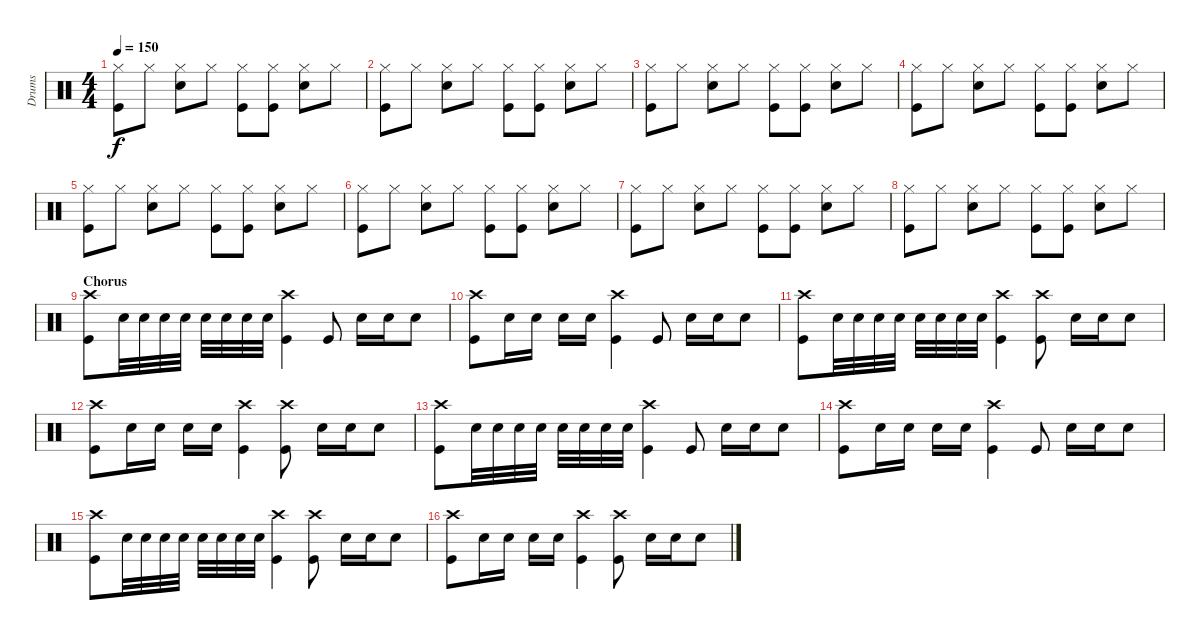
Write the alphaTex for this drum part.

\track ("Drums" "Drums") {instrument percussion}
\staff {score}
\articulation defaults
\ts (4 4)
\section ("" "")
\tempo 150
\clef neutral
\ks c
("Hi-Hat (closed)" "Kick (hit)").8{dy f} "Hi-Hat (closed)".8 ("Hi-Hat (closed)" "Snare (hit) 2").8 "Hi-Hat (closed)".8 ("Hi-Hat (closed)" "Kick (hit)").8 ("Hi-Hat (closed)" "Kick (hit)").8 ("Hi-Hat (closed)" "Snare (hit) 2").8 "Hi-Hat (closed)".8 |
("Hi-Hat (closed)" "Kick (hit)").8 "Hi-Hat (closed)".8 ("Hi-Hat (closed)" "Snare (hit) 2").8 "Hi-Hat (closed)".8 ("Hi-Hat (closed)" "Kick (hit)").8 ("Hi-Hat (closed)" "Kick (hit)").8 ("Hi-Hat (closed)" "Snare (hit) 2").8 "Hi-Hat (closed)".8 |
("Hi-Hat (closed)" "Kick (hit)").8 "Hi-Hat (closed)".8 ("Hi-Hat (closed)" "Snare (hit) 2").8 "Hi-Hat (closed)".8 ("Hi-Hat (closed)" "Kick (hit)").8 ("Hi-Hat (closed)" "Kick (hit)").8 ("Hi-Hat (closed)" "Snare (hit) 2").8 "Hi-Hat (closed)".8 |
("Hi-Hat (closed)" "Kick (hit)").8 "Hi-Hat (closed)".8 ("Hi-Hat (closed)" "Snare (hit) 2").8 "Hi-Hat (closed)".8 ("Hi-Hat (closed)" "Kick (hit)").8 ("Hi-Hat (closed)" "Kick (hit)").8 ("Hi-Hat (closed)" "Snare (hit) 2").8 "Hi-Hat (closed)".8 |
("Hi-Hat (closed)" "Kick (hit)").8 "Hi-Hat (closed)".8 ("Hi-Hat (closed)" "Snare (hit) 2").8 "Hi-Hat (closed)".8 ("Hi-Hat (closed)" "Kick (hit)").8 ("Hi-Hat (closed)" "Kick (hit)").8 ("Hi-Hat (closed)" "Snare (hit) 2").8 "Hi-Hat (closed)".8 |
("Hi-Hat (closed)" "Kick (hit)").8 "Hi-Hat (closed)".8 ("Hi-Hat (closed)" "Snare (hit) 2").8 "Hi-Hat (closed)".8 ("Hi-Hat (closed)" "Kick (hit)").8 ("Hi-Hat (closed)" "Kick (hit)").8 ("Hi-Hat (closed)" "Snare (hit) 2").8 "Hi-Hat (closed)".8 |
("Hi-Hat (closed)" "Kick (hit)").8 "Hi-Hat (closed)".8 ("Hi-Hat (closed)" "Snare (hit) 2").8 "Hi-Hat (closed)".8 ("Hi-Hat (closed)" "Kick (hit)").8 ("Hi-Hat (closed)" "Kick (hit)").8 ("Hi-Hat (closed)" "Snare (hit) 2").8 "Hi-Hat (closed)".8 |
("Hi-Hat (closed)" "Kick (hit)").8 "Hi-Hat (closed)".8 ("Hi-Hat (closed)" "Snare (hit) 2").8 "Hi-Hat (closed)".8 ("Hi-Hat (closed)" "Kick (hit)").8 ("Hi-Hat (closed)" "Kick (hit)").8 ("Hi-Hat (closed)" "Snare (hit) 2").8 "Hi-Hat (closed)".8 |
\section ("" "Chorus")
("Crash high (hit)" "Kick (hit)").8 "Snare (hit) 2".32 "Snare (hit) 2".32 "Snare (hit) 2".32 "Snare (hit) 2".32 "Snare (hit) 2".32 "Snare (hit) 2".32 "Snare (hit) 2".32 "Snare (hit) 2".32 ("Crash high (hit)" "Kick (hit)").4 "Kick (hit)".8 "Snare (hit) 2".16 "Snare (hit) 2".16 "Snare (hit) 2".8 |
("Crash high (hit)" "Kick (hit)").8 "Snare (hit) 2".16 "Snare (hit) 2".16 "Snare (hit) 2".16 "Snare (hit) 2".16 ("Crash high (hit)" "Kick (hit)").4 "Kick (hit)".8 "Snare (hit) 2".16 "Snare (hit) 2".16 "Snare (hit) 2".8 |
("Crash high (hit)" "Kick (hit)").8 "Snare (hit) 2".32 "Snare (hit) 2".32 "Snare (hit) 2".32 "Snare (hit) 2".32 "Snare (hit) 2".32 "Snare (hit) 2".32 "Snare (hit) 2".32 "Snare (hit) 2".32 ("Crash high (hit)" "Kick (hit)").4 ("Crash high (hit)" "Kick (hit)").8 "Snare (hit) 2".16 "Snare (hit) 2".16 "Snare (hit) 2".8 |
("Crash high (hit)" "Kick (hit)").8 "Snare (hit) 2".16 "Snare (hit) 2".16 "Snare (hit) 2".16 "Snare (hit) 2".16 ("Crash high (hit)" "Kick (hit)").4 ("Crash high (hit)" "Kick (hit)").8 "Snare (hit) 2".16 "Snare (hit) 2".16 "Snare (hit) 2".8 |
("Crash high (hit)" "Kick (hit)").8 "Snare (hit) 2".32 "Snare (hit) 2".32 "Snare (hit) 2".32 "Snare (hit) 2".32 "Snare (hit) 2".32 "Snare (hit) 2".32 "Snare (hit) 2".32 "Snare (hit) 2".32 ("Crash high (hit)" "Kick (hit)").4 "Kick (hit)".8 "Snare (hit) 2".16 "Snare (hit) 2".16 "Snare (hit) 2".8 |
("Crash high (hit)" "Kick (hit)").8 "Snare (hit) 2".16 "Snare (hit) 2".16 "Snare (hit) 2".16 "Snare (hit) 2".16 ("Crash high (hit)" "Kick (hit)").4 "Kick (hit)".8 "Snare (hit) 2".16 "Snare (hit) 2".16 "Snare (hit) 2".8 |
("Crash high (hit)" "Kick (hit)").8 "Snare (hit) 2".32 "Snare (hit) 2".32 "Snare (hit) 2".32 "Snare (hit) 2".32 "Snare (hit) 2".32 "Snare (hit) 2".32 "Snare (hit) 2".32 "Snare (hit) 2".32 ("Crash high (hit)" "Kick (hit)").4 ("Crash high (hit)" "Kick (hit)").8 "Snare (hit) 2".16 "Snare (hit) 2".16 "Snare (hit) 2".8 |
("Crash high (hit)" "Kick (hit)").8 "Snare (hit) 2".16 "Snare (hit) 2".16 "Snare (hit) 2".16 "Snare (hit) 2".16 ("Crash high (hit)" "Kick (hit)").4 ("Crash high (hit)" "Kick (hit)").8 "Snare (hit) 2".16 "Snare (hit) 2".16 "Snare (hit) 2".8
